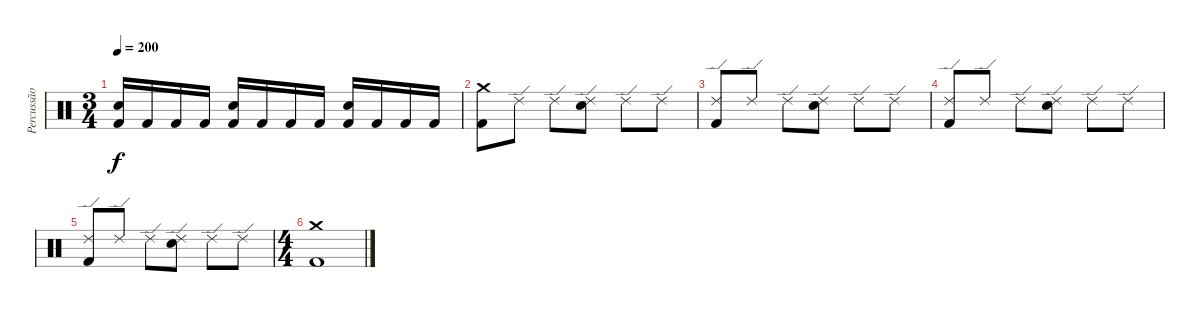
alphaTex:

\track ("Percussão" "Percussão") {instrument percussion}
\staff {score}
\articulation defaults
\ts (3 4)
\tempo 200
\clef neutral
\ks c
("Electric Snare (hit)" "Kick (hit) 2").16{dy f} "Kick (hit) 2".16 "Kick (hit) 2".16 "Kick (hit) 2".16 ("Electric Snare (hit)" "Kick (hit) 2").16 "Kick (hit) 2".16 "Kick (hit) 2".16 "Kick (hit) 2".16 ("Electric Snare (hit)" "Kick (hit) 2").16 "Kick (hit) 2".16 "Kick (hit) 2".16 "Kick (hit) 2".16 |
("Crash medium (hit)" "Kick (hit) 2").8 "Ride (edge) 2".8 "Ride (edge) 2".8 ("Ride (edge) 2" "Electric Snare (hit)").8 "Ride (edge) 2".8 "Ride (edge) 2".8 |
("Ride (edge) 2" "Kick (hit) 2").8 "Ride (edge) 2".8 "Ride (edge) 2".8 ("Ride (edge) 2" "Electric Snare (hit)").8 "Ride (edge) 2".8 "Ride (edge) 2".8 |
("Ride (edge) 2" "Kick (hit) 2").8 "Ride (edge) 2".8 "Ride (edge) 2".8 ("Ride (edge) 2" "Electric Snare (hit)").8 "Ride (edge) 2".8 "Ride (edge) 2".8 |
("Ride (edge) 2" "Kick (hit) 2").8 "Ride (edge) 2".8 "Ride (edge) 2".8 ("Ride (edge) 2" "Electric Snare (hit)").8 "Ride (edge) 2".8 "Ride (edge) 2".8 |
\ts (4 4)
("Crash medium (hit)" "Kick (hit) 2").1
